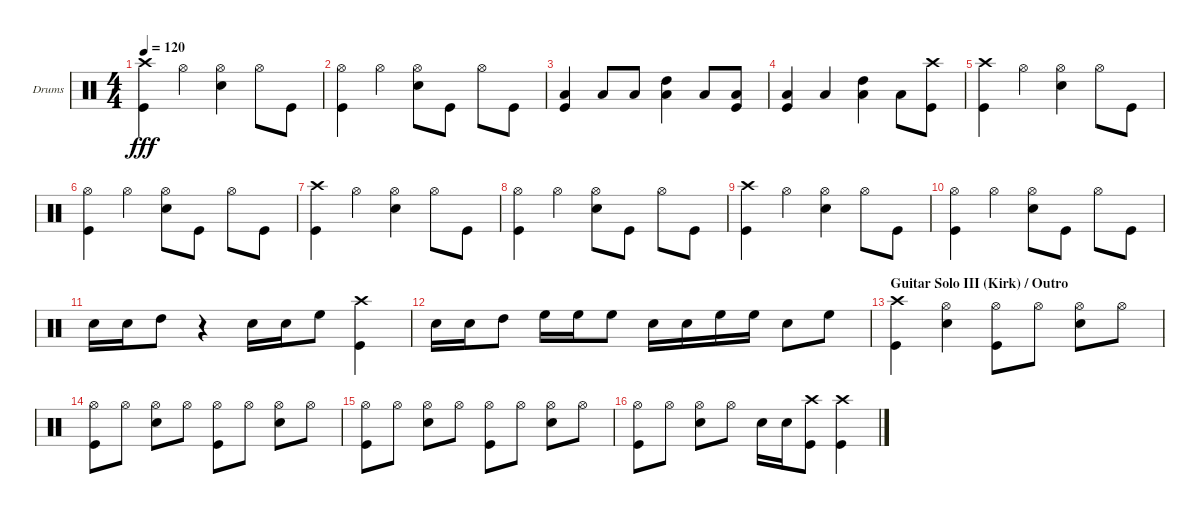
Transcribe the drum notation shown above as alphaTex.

\bracketExtendMode groupsimilarinstruments
\firstSystemTrackNameOrientation horizontal
\otherSystemsTrackNameOrientation horizontal
\track ("Drumkit" "Drums") {instrument percussion}
\staff {score}
\articulation defaults
\ts (4 4)
\tempo 120
\clef neutral
\ks c
("Kick (hit)" "Crash high (hit)").4{dy fff} "Hi-Hat (open)".4 ("Snare (hit) 2" "Hi-Hat (open)").4 "Hi-Hat (open)".8 "Kick (hit)".8 |
("Hi-Hat (open)" "Kick (hit)").4 "Hi-Hat (open)".4 ("Snare (hit) 2" "Hi-Hat (open)").8 "Kick (hit)".8 "Hi-Hat (open)".8 "Kick (hit)".8 |
("Kick (hit)" "Low Tom (hit)").4 "Low Tom (hit)".8 "Low Tom (hit)".8 ("High Tom (hit)" "Low Tom (hit)").4 "Low Tom (hit)".8 ("Kick (hit)" "Low Tom (hit)").8 |
("Kick (hit)" "Low Tom (hit)").4 "Low Tom (hit)".4 ("Low Tom (hit)" "High Tom (hit)").4 "Low Tom (hit)".8 ("Kick (hit)" "Crash high (hit)").8 |
("Kick (hit)" "Crash high (hit)").4 "Hi-Hat (open)".4 ("Snare (hit) 2" "Hi-Hat (open)").4 "Hi-Hat (open)".8 "Kick (hit)".8 |
("Hi-Hat (open)" "Kick (hit)").4 "Hi-Hat (open)".4 ("Snare (hit) 2" "Hi-Hat (open)").8 "Kick (hit)".8 "Hi-Hat (open)".8 "Kick (hit)".8 |
("Kick (hit)" "Crash high (hit)").4 "Hi-Hat (open)".4 ("Snare (hit) 2" "Hi-Hat (open)").4 "Hi-Hat (open)".8 "Kick (hit)".8 |
("Hi-Hat (open)" "Kick (hit)").4 "Hi-Hat (open)".4 ("Snare (hit) 2" "Hi-Hat (open)").8 "Kick (hit)".8 "Hi-Hat (open)".8 "Kick (hit)".8 |
("Kick (hit)" "Crash high (hit)").4 "Hi-Hat (open)".4 ("Snare (hit) 2" "Hi-Hat (open)").4 "Hi-Hat (open)".8 "Kick (hit)".8 |
("Hi-Hat (open)" "Kick (hit)").4 "Hi-Hat (open)".4 ("Snare (hit) 2" "Hi-Hat (open)").8 "Kick (hit)".8 "Hi-Hat (open)".8 "Kick (hit)".8 |
"Snare (hit) 2".16 "Snare (hit) 2".16 "High Tom (hit)".8 r.4 "Snare (hit) 2".16 "Snare (hit) 2".16 "High Floor Tom (hit)".8 ("Crash high (hit)" "Kick (hit)").4 |
"Snare (hit) 2".16 "Snare (hit) 2".16 "High Tom (hit)".8 "High Floor Tom (hit)".16 "High Floor Tom (hit)".16 "High Floor Tom (hit)".8 "Snare (hit) 2".16 "Snare (hit) 2".16 "High Floor Tom (hit)".16 "High Floor Tom (hit)".16 "Snare (hit) 2".8 "High Floor Tom (hit)".8 |
\section ("" "Guitar Solo III (Kirk) / Outro")
("Kick (hit)" "Crash high (hit)").4 ("Hi-Hat (open)" "Snare (hit) 2").4 ("Kick (hit)" "Hi-Hat (open)").8 "Hi-Hat (open)".8 ("Snare (hit) 2" "Hi-Hat (open)").8 "Hi-Hat (open)".8 |
("Kick (hit)" "Hi-Hat (open)").8 "Hi-Hat (open)".8 ("Snare (hit) 2" "Hi-Hat (open)").8 "Hi-Hat (open)".8 ("Kick (hit)" "Hi-Hat (open)").8 "Hi-Hat (open)".8 ("Snare (hit) 2" "Hi-Hat (open)").8 "Hi-Hat (open)".8 |
("Kick (hit)" "Hi-Hat (open)").8 "Hi-Hat (open)".8 ("Snare (hit) 2" "Hi-Hat (open)").8 "Hi-Hat (open)".8 ("Kick (hit)" "Hi-Hat (open)").8 "Hi-Hat (open)".8 ("Snare (hit) 2" "Hi-Hat (open)").8 "Hi-Hat (open)".8 |
("Kick (hit)" "Hi-Hat (open)").8 "Hi-Hat (open)".8 ("Snare (hit) 2" "Hi-Hat (open)").8 "Hi-Hat (open)".8 "Snare (hit) 2".16 "Snare (hit) 2".16 ("Crash high (hit)" "Kick (hit)").8 ("Crash high (hit)" "Kick (hit)").4
